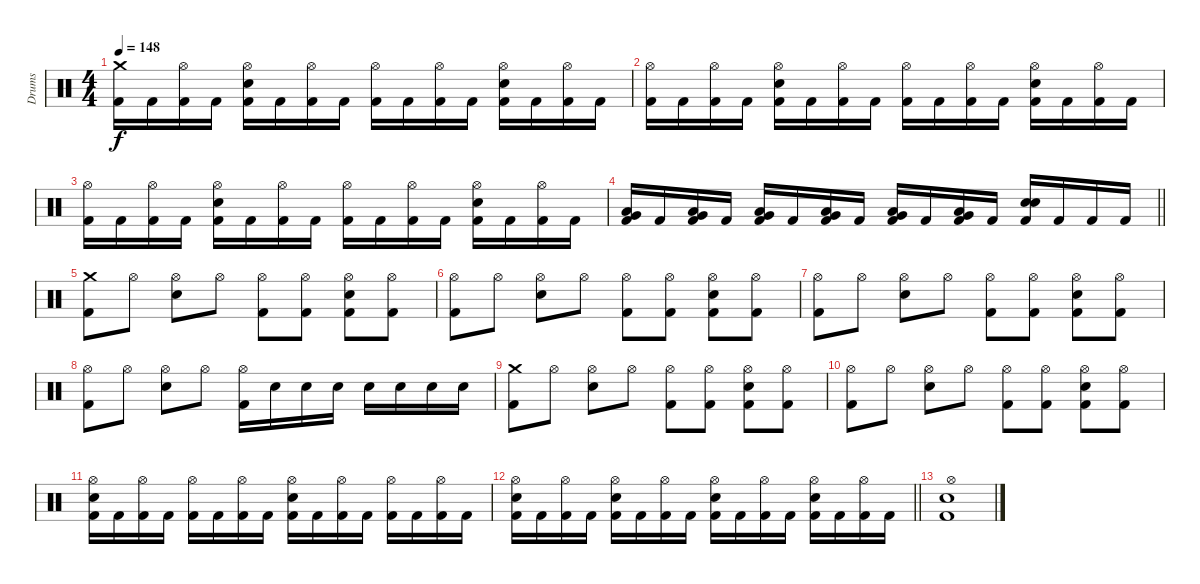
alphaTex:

\track ("Drums" "Drums") {instrument percussion}
\staff {score}
\articulation defaults
\ts (4 4)
\tempo 148
\clef neutral
\ks c
("Crash medium (hit)" "Kick (hit) 2").16{dy f} "Kick (hit) 2".16 ("Hi-Hat (open)" "Kick (hit) 2").16 "Kick (hit) 2".16 ("Hi-Hat (open)" "Snare (hit) 2" "Kick (hit) 2").16 "Kick (hit) 2".16 ("Hi-Hat (open)" "Kick (hit) 2").16 "Kick (hit) 2".16 ("Hi-Hat (open)" "Kick (hit) 2").16 "Kick (hit) 2".16 ("Hi-Hat (open)" "Kick (hit) 2").16 "Kick (hit) 2".16 ("Hi-Hat (open)" "Snare (hit) 2" "Kick (hit) 2").16 "Kick (hit) 2".16 ("Hi-Hat (open)" "Kick (hit) 2").16 "Kick (hit) 2".16 |
("Hi-Hat (open)" "Kick (hit) 2").16 "Kick (hit) 2".16 ("Hi-Hat (open)" "Kick (hit) 2").16 "Kick (hit) 2".16 ("Hi-Hat (open)" "Snare (hit) 2" "Kick (hit) 2").16 "Kick (hit) 2".16 ("Hi-Hat (open)" "Kick (hit) 2").16 "Kick (hit) 2".16 ("Hi-Hat (open)" "Kick (hit) 2").16 "Kick (hit) 2".16 ("Hi-Hat (open)" "Kick (hit) 2").16 "Kick (hit) 2".16 ("Hi-Hat (open)" "Snare (hit) 2" "Kick (hit) 2").16 "Kick (hit) 2".16 ("Hi-Hat (open)" "Kick (hit) 2").16 "Kick (hit) 2".16 |
("Hi-Hat (open)" "Kick (hit) 2").16 "Kick (hit) 2".16 ("Hi-Hat (open)" "Kick (hit) 2").16 "Kick (hit) 2".16 ("Hi-Hat (open)" "Snare (hit) 2" "Kick (hit) 2").16 "Kick (hit) 2".16 ("Hi-Hat (open)" "Kick (hit) 2").16 "Kick (hit) 2".16 ("Hi-Hat (open)" "Kick (hit) 2").16 "Kick (hit) 2".16 ("Hi-Hat (open)" "Kick (hit) 2").16 "Kick (hit) 2".16 ("Hi-Hat (open)" "Snare (hit) 2" "Kick (hit) 2").16 "Kick (hit) 2".16 ("Hi-Hat (open)" "Kick (hit) 2").16 "Kick (hit) 2".16 |
\barLineRight lightlight
("Low Tom (hit)" "Very Low Tom (hit)" "Kick (hit) 2").16 "Kick (hit) 2".16 ("Low Tom (hit)" "Very Low Tom (hit)" "Kick (hit) 2").16 "Kick (hit) 2".16 ("Low Tom (hit)" "Very Low Tom (hit)" "Kick (hit) 2").16 "Kick (hit) 2".16 ("Low Tom (hit)" "Very Low Tom (hit)" "Kick (hit) 2").16 "Kick (hit) 2".16 ("Low Tom (hit)" "Very Low Tom (hit)" "Kick (hit) 2").16 "Kick (hit) 2".16 ("Low Tom (hit)" "Very Low Tom (hit)" "Kick (hit) 2").16 "Kick (hit) 2".16 ("Snare (hit) 2" "Snare (hit) 2" "Kick (hit) 2").16 "Kick (hit) 2".16 "Kick (hit) 2".16 "Kick (hit) 2".16 |
("Crash medium (hit)" "Kick (hit) 2").8 "Hi-Hat (open)".8 ("Hi-Hat (open)" "Snare (hit) 2").8 "Hi-Hat (open)".8 ("Hi-Hat (open)" "Kick (hit) 2").8 ("Hi-Hat (open)" "Kick (hit) 2").8 ("Hi-Hat (open)" "Snare (hit) 2" "Kick (hit) 2").8 ("Hi-Hat (open)" "Kick (hit) 2").8 |
("Hi-Hat (open)" "Kick (hit) 2").8 "Hi-Hat (open)".8 ("Hi-Hat (open)" "Snare (hit) 2").8 "Hi-Hat (open)".8 ("Hi-Hat (open)" "Kick (hit) 2").8 ("Hi-Hat (open)" "Kick (hit) 2").8 ("Hi-Hat (open)" "Snare (hit) 2" "Kick (hit) 2").8 ("Hi-Hat (open)" "Kick (hit) 2").8 |
("Hi-Hat (open)" "Kick (hit) 2").8 "Hi-Hat (open)".8 ("Hi-Hat (open)" "Snare (hit) 2").8 "Hi-Hat (open)".8 ("Hi-Hat (open)" "Kick (hit) 2").8 ("Hi-Hat (open)" "Kick (hit) 2").8 ("Hi-Hat (open)" "Snare (hit) 2" "Kick (hit) 2").8 ("Hi-Hat (open)" "Kick (hit) 2").8 |
("Hi-Hat (open)" "Kick (hit) 2").8 "Hi-Hat (open)".8 ("Hi-Hat (open)" "Snare (hit) 2").8 "Hi-Hat (open)".8 ("Hi-Hat (open)" "Kick (hit) 2").16 "Snare (hit) 2".16 "Snare (hit) 2".16 "Snare (hit) 2".16 "Snare (hit) 2".16 "Snare (hit) 2".16 "Snare (hit) 2".16 "Snare (hit) 2".16 |
("Crash medium (hit)" "Kick (hit) 2").8 "Hi-Hat (open)".8 ("Hi-Hat (open)" "Snare (hit) 2").8 "Hi-Hat (open)".8 ("Hi-Hat (open)" "Kick (hit) 2").8 ("Hi-Hat (open)" "Kick (hit) 2").8 ("Hi-Hat (open)" "Snare (hit) 2" "Kick (hit) 2").8 ("Hi-Hat (open)" "Kick (hit) 2").8 |
("Hi-Hat (open)" "Kick (hit) 2").8 "Hi-Hat (open)".8 ("Hi-Hat (open)" "Snare (hit) 2").8 "Hi-Hat (open)".8 ("Hi-Hat (open)" "Kick (hit) 2").8 ("Hi-Hat (open)" "Kick (hit) 2").8 ("Hi-Hat (open)" "Snare (hit) 2" "Kick (hit) 2").8 ("Hi-Hat (open)" "Kick (hit) 2").8 |
("Hi-Hat (open)" "Snare (hit) 2" "Kick (hit) 2").16 "Kick (hit) 2".16 ("Hi-Hat (open)" "Kick (hit) 2").16 "Kick (hit) 2".16 ("Hi-Hat (open)" "Kick (hit) 2").16 "Kick (hit) 2".16 ("Hi-Hat (open)" "Kick (hit) 2").16 "Kick (hit) 2".16 ("Hi-Hat (open)" "Snare (hit) 2" "Kick (hit) 2").16 "Kick (hit) 2".16 ("Hi-Hat (open)" "Kick (hit) 2").16 "Kick (hit) 2".16 ("Hi-Hat (open)" "Kick (hit) 2").16 "Kick (hit) 2".16 ("Hi-Hat (open)" "Kick (hit) 2").16 "Kick (hit) 2".16 |
\barLineRight lightlight
("Hi-Hat (open)" "Snare (hit) 2" "Kick (hit) 2").16 "Kick (hit) 2".16 ("Hi-Hat (open)" "Kick (hit) 2").16 "Kick (hit) 2".16 ("Hi-Hat (open)" "Snare (hit) 2" "Kick (hit) 2").16 "Kick (hit) 2".16 ("Hi-Hat (open)" "Kick (hit) 2").16 "Kick (hit) 2".16 ("Hi-Hat (open)" "Snare (hit) 2" "Kick (hit) 2").16 "Kick (hit) 2".16 ("Hi-Hat (open)" "Kick (hit) 2").16 "Kick (hit) 2".16 ("Hi-Hat (open)" "Snare (hit) 2" "Kick (hit) 2").16 "Kick (hit) 2".16 ("Hi-Hat (open)" "Kick (hit) 2").16 "Kick (hit) 2".16 |
("Hi-Hat (open)" "Snare (hit) 2" "Kick (hit) 2").1
